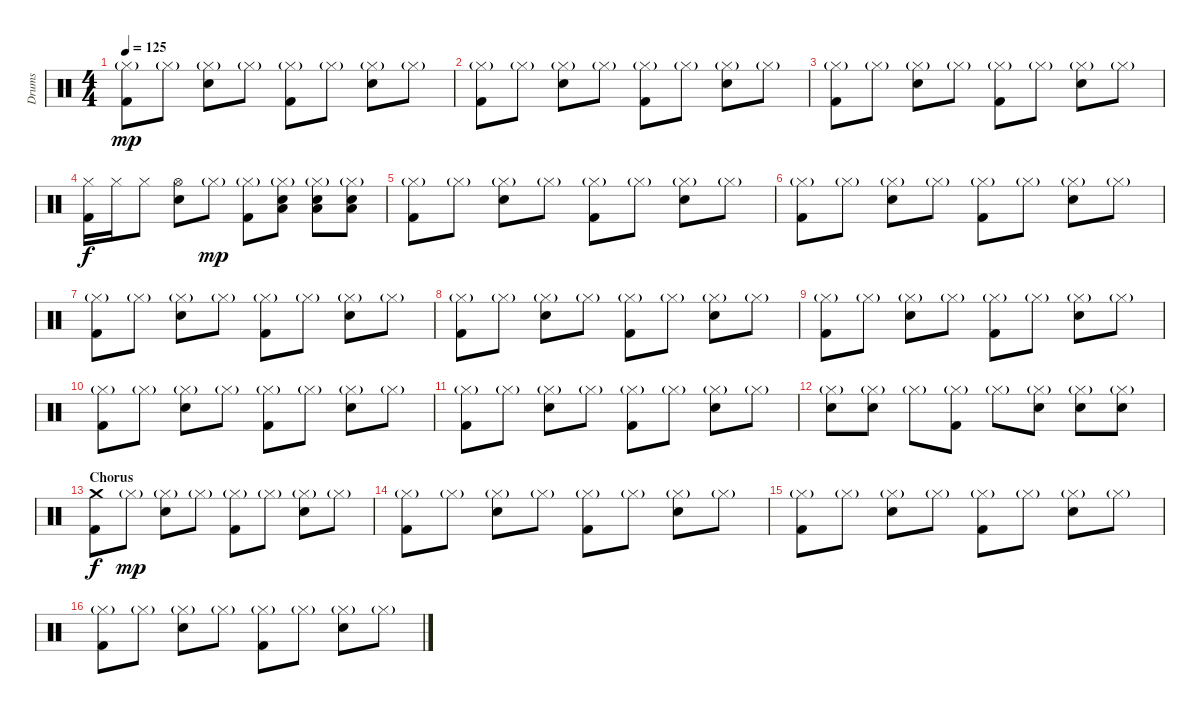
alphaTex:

\track ("Drums" "Drums") {instrument percussion}
\staff {score}
\articulation defaults
\ts (4 4)
\tempo 125
\clef neutral
\ks c
("Hi-Hat (closed)"{g} "Kick (hit) 2").8{dy mp balance 8} "Hi-Hat (closed)"{g}.8 ("Hi-Hat (closed)"{g} "Snare (hit) 2").8 "Hi-Hat (closed)"{g}.8 ("Hi-Hat (closed)"{g} "Kick (hit) 2").8 "Hi-Hat (closed)"{g}.8 ("Hi-Hat (closed)"{g} "Snare (hit) 2").8 "Hi-Hat (closed)"{g}.8 |
("Hi-Hat (closed)"{g} "Kick (hit) 2").8 "Hi-Hat (closed)"{g}.8 ("Hi-Hat (closed)"{g} "Snare (hit) 2").8 "Hi-Hat (closed)"{g}.8 ("Hi-Hat (closed)"{g} "Kick (hit) 2").8 "Hi-Hat (closed)"{g}.8 ("Hi-Hat (closed)"{g} "Snare (hit) 2").8 "Hi-Hat (closed)"{g}.8 |
("Hi-Hat (closed)"{g} "Kick (hit) 2").8 "Hi-Hat (closed)"{g}.8 ("Hi-Hat (closed)"{g} "Snare (hit) 2").8 "Hi-Hat (closed)"{g}.8 ("Hi-Hat (closed)"{g} "Kick (hit) 2").8 "Hi-Hat (closed)"{g}.8 ("Hi-Hat (closed)"{g} "Snare (hit) 2").8 "Hi-Hat (closed)"{g}.8 |
("Hi-Hat (closed)" "Kick (hit) 2").16{dy f} "Hi-Hat (closed)".16 "Hi-Hat (closed)".8 ("Hi-Hat (open)" "Snare (hit) 2").8 "Hi-Hat (closed)"{g}.8{dy mp} ("Hi-Hat (closed)"{g} "Kick (hit) 2").8 ("Hi-Hat (closed)"{g} "Snare (hit) 2" "Low Tom (hit)").8 ("Hi-Hat (closed)"{g} "Snare (hit) 2" "Low Tom (hit)").8 ("Hi-Hat (closed)"{g} "Snare (hit) 2" "Low Tom (hit)").8 |
("Hi-Hat (closed)"{g} "Kick (hit) 2").8{balance 8} "Hi-Hat (closed)"{g}.8 ("Hi-Hat (closed)"{g} "Snare (hit) 2").8 "Hi-Hat (closed)"{g}.8 ("Hi-Hat (closed)"{g} "Kick (hit) 2").8 "Hi-Hat (closed)"{g}.8 ("Hi-Hat (closed)"{g} "Snare (hit) 2").8 "Hi-Hat (closed)"{g}.8 |
("Hi-Hat (closed)"{g} "Kick (hit) 2").8 "Hi-Hat (closed)"{g}.8 ("Hi-Hat (closed)"{g} "Snare (hit) 2").8 "Hi-Hat (closed)"{g}.8 ("Hi-Hat (closed)"{g} "Kick (hit) 2").8 "Hi-Hat (closed)"{g}.8 ("Hi-Hat (closed)"{g} "Snare (hit) 2").8 "Hi-Hat (closed)"{g}.8 |
("Hi-Hat (closed)"{g} "Kick (hit) 2").8 "Hi-Hat (closed)"{g}.8 ("Hi-Hat (closed)"{g} "Snare (hit) 2").8 "Hi-Hat (closed)"{g}.8 ("Hi-Hat (closed)"{g} "Kick (hit) 2").8 "Hi-Hat (closed)"{g}.8 ("Hi-Hat (closed)"{g} "Snare (hit) 2").8 "Hi-Hat (closed)"{g}.8 |
("Hi-Hat (closed)"{g} "Kick (hit) 2").8 "Hi-Hat (closed)"{g}.8 ("Hi-Hat (closed)"{g} "Snare (hit) 2").8 "Hi-Hat (closed)"{g}.8 ("Hi-Hat (closed)"{g} "Kick (hit) 2").8 "Hi-Hat (closed)"{g}.8 ("Hi-Hat (closed)"{g} "Snare (hit) 2").8 "Hi-Hat (closed)"{g}.8 |
("Hi-Hat (closed)"{g} "Kick (hit) 2").8{balance 8} "Hi-Hat (closed)"{g}.8 ("Hi-Hat (closed)"{g} "Snare (hit) 2").8 "Hi-Hat (closed)"{g}.8 ("Hi-Hat (closed)"{g} "Kick (hit) 2").8 "Hi-Hat (closed)"{g}.8 ("Hi-Hat (closed)"{g} "Snare (hit) 2").8 "Hi-Hat (closed)"{g}.8 |
("Hi-Hat (closed)"{g} "Kick (hit) 2").8 "Hi-Hat (closed)"{g}.8 ("Hi-Hat (closed)"{g} "Snare (hit) 2").8 "Hi-Hat (closed)"{g}.8 ("Hi-Hat (closed)"{g} "Kick (hit) 2").8 "Hi-Hat (closed)"{g}.8 ("Hi-Hat (closed)"{g} "Snare (hit) 2").8 "Hi-Hat (closed)"{g}.8 |
("Hi-Hat (closed)"{g} "Kick (hit) 2").8 "Hi-Hat (closed)"{g}.8 ("Hi-Hat (closed)"{g} "Snare (hit) 2").8 "Hi-Hat (closed)"{g}.8 ("Hi-Hat (closed)"{g} "Kick (hit) 2").8 "Hi-Hat (closed)"{g}.8 ("Hi-Hat (closed)"{g} "Snare (hit) 2").8 "Hi-Hat (closed)"{g}.8 |
("Hi-Hat (closed)"{g} "Snare (hit) 2").8 ("Hi-Hat (closed)"{g} "Snare (hit) 2").8 "Hi-Hat (closed)"{g}.8 ("Hi-Hat (closed)"{g} "Kick (hit) 2").8 "Hi-Hat (closed)"{g}.8 ("Hi-Hat (closed)"{g} "Snare (hit) 2").8 ("Hi-Hat (closed)"{g} "Snare (hit) 2").8 ("Hi-Hat (closed)"{g} "Snare (hit) 2").8 |
\section ("" "Chorus")
("Crash medium (hit)" "Kick (hit) 2").8{dy f} "Hi-Hat (closed)"{g}.8{dy mp} ("Hi-Hat (closed)"{g} "Snare (hit) 2").8 "Hi-Hat (closed)"{g}.8 ("Hi-Hat (closed)"{g} "Kick (hit) 2").8 "Hi-Hat (closed)"{g}.8 ("Hi-Hat (closed)"{g} "Snare (hit) 2").8 "Hi-Hat (closed)"{g}.8 |
("Hi-Hat (closed)"{g} "Kick (hit) 2").8 "Hi-Hat (closed)"{g}.8 ("Hi-Hat (closed)"{g} "Snare (hit) 2").8 "Hi-Hat (closed)"{g}.8 ("Hi-Hat (closed)"{g} "Kick (hit) 2").8 "Hi-Hat (closed)"{g}.8 ("Hi-Hat (closed)"{g} "Snare (hit) 2").8 "Hi-Hat (closed)"{g}.8 |
("Hi-Hat (closed)"{g} "Kick (hit) 2").8 "Hi-Hat (closed)"{g}.8 ("Hi-Hat (closed)"{g} "Snare (hit) 2").8 "Hi-Hat (closed)"{g}.8 ("Hi-Hat (closed)"{g} "Kick (hit) 2").8 "Hi-Hat (closed)"{g}.8 ("Hi-Hat (closed)"{g} "Snare (hit) 2").8 "Hi-Hat (closed)"{g}.8 |
("Hi-Hat (closed)"{g} "Kick (hit) 2").8 "Hi-Hat (closed)"{g}.8 ("Hi-Hat (closed)"{g} "Snare (hit) 2").8 "Hi-Hat (closed)"{g}.8 ("Hi-Hat (closed)"{g} "Kick (hit) 2").8 "Hi-Hat (closed)"{g}.8 ("Hi-Hat (closed)"{g} "Snare (hit) 2").8 "Hi-Hat (closed)"{g}.8
